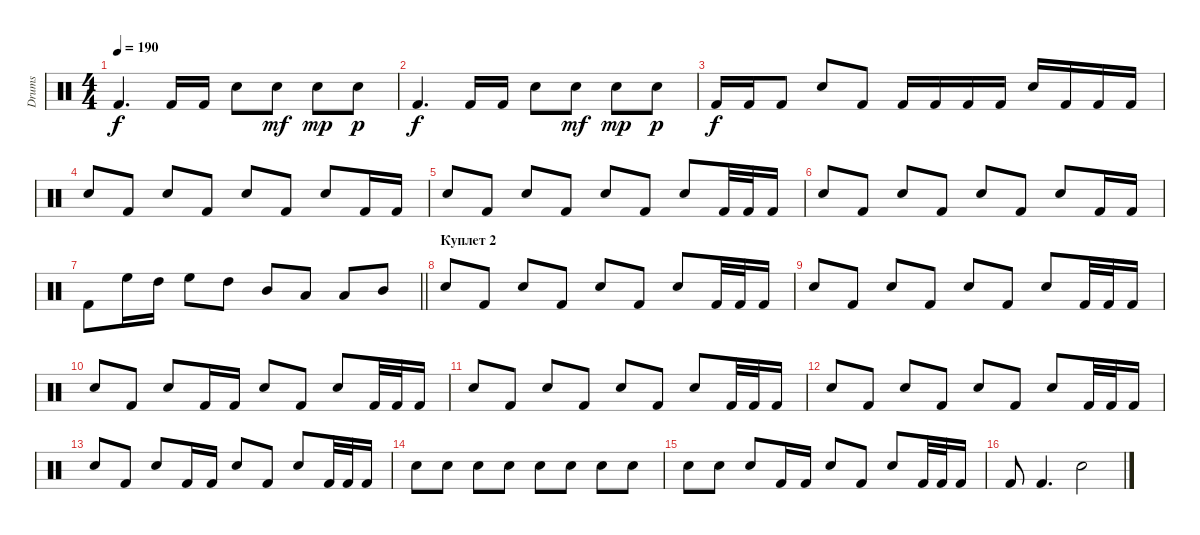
\track ("Drums" "Drums") {instrument percussion}
\staff {score}
\articulation defaults
\ts (4 4)
\tempo 190
\clef neutral
\ks c "Kick (hit) 2".4{d dy f} "Kick (hit) 2".16 "Kick (hit) 2".16 "Snare (hit) 2".8 "Snare (hit) 2".8{dy mf} "Snare (hit) 2".8{dy mp} "Snare (hit) 2".8{dy p}
|
"Kick (hit) 2".4{d dy f} "Kick (hit) 2".16 "Kick (hit) 2".16 "Snare (hit) 2".8 "Snare (hit) 2".8{dy mf} "Snare (hit) 2".8{dy mp} "Snare (hit) 2".8{dy p} |
"Kick (hit) 2".16{dy f} "Kick (hit) 2".16 "Kick (hit) 2".8 "Snare (hit) 2".8 "Kick (hit) 2".8 "Kick (hit) 2".16 "Kick (hit) 2".16 "Kick (hit) 2".16 "Kick (hit) 2".16 "Snare (hit) 2".16 "Kick (hit) 2".16 "Kick (hit) 2".16 "Kick (hit) 2".16 |
"Snare (hit) 2".8 "Kick (hit) 2".8 "Snare (hit) 2".8 "Kick (hit) 2".8 "Snare (hit) 2".8 "Kick (hit) 2".8 "Snare (hit) 2".8 "Kick (hit) 2".16 "Kick (hit) 2".16 |
"Snare (hit) 2".8 "Kick (hit) 2".8 "Snare (hit) 2".8 "Kick (hit) 2".8 "Snare (hit) 2".8 "Kick (hit) 2".8 "Snare (hit) 2".8 "Kick (hit) 2".32 "Kick (hit) 2".32 "Kick (hit) 2".16 |
"Snare (hit) 2".8 "Kick (hit) 2".8 "Snare (hit) 2".8 "Kick (hit) 2".8 "Snare (hit) 2".8 "Kick (hit) 2".8 "Snare (hit) 2".8 "Kick (hit) 2".16 "Kick (hit) 2".16 |
\barLineRight lightlight "Kick (hit) 2".8 "High Floor Tom (hit)".16 "High Tom (hit)".16 "High Floor Tom (hit)".8 "High Tom (hit)".8 "Mid Tom (hit)".8 "Low Tom (hit)".8 "Low Tom (hit)".8 "Mid Tom (hit)".8
|
\section ("" "Куплет 2")
"Snare (hit) 2".8 "Kick (hit) 2".8 "Snare (hit) 2".8 "Kick (hit) 2".8 "Snare (hit) 2".8 "Kick (hit) 2".8 "Snare (hit) 2".8 "Kick (hit) 2".32 "Kick (hit) 2".32 "Kick (hit) 2".16 |
"Snare (hit) 2".8 "Kick (hit) 2".8 "Snare (hit) 2".8 "Kick (hit) 2".8 "Snare (hit) 2".8 "Kick (hit) 2".8 "Snare (hit) 2".8 "Kick (hit) 2".32 "Kick (hit) 2".32 "Kick (hit) 2".16 |
"Snare (hit) 2".8 "Kick (hit) 2".8 "Snare (hit) 2".8 "Kick (hit) 2".16 "Kick (hit) 2".16 "Snare (hit) 2".8 "Kick (hit) 2".8 "Snare (hit) 2".8 "Kick (hit) 2".32 "Kick (hit) 2".32 "Kick (hit) 2".16 |
"Snare (hit) 2".8 "Kick (hit) 2".8 "Snare (hit) 2".8 "Kick (hit) 2".8 "Snare (hit) 2".8 "Kick (hit) 2".8 "Snare (hit) 2".8 "Kick (hit) 2".32 "Kick (hit) 2".32 "Kick (hit) 2".16 |
"Snare (hit) 2".8 "Kick (hit) 2".8 "Snare (hit) 2".8 "Kick (hit) 2".8 "Snare (hit) 2".8 "Kick (hit) 2".8 "Snare (hit) 2".8 "Kick (hit) 2".32 "Kick (hit) 2".32 "Kick (hit) 2".16 |
"Snare (hit) 2".8 "Kick (hit) 2".8 "Snare (hit) 2".8 "Kick (hit) 2".16 "Kick (hit) 2".16 "Snare (hit) 2".8 "Kick (hit) 2".8 "Snare (hit) 2".8 "Kick (hit) 2".32 "Kick (hit) 2".32 "Kick (hit) 2".16 |
"Snare (hit) 2".8 "Snare (hit) 2".8 "Snare (hit) 2".8 "Snare (hit) 2".8 "Snare (hit) 2".8 "Snare (hit) 2".8 "Snare (hit) 2".8 "Snare (hit) 2".8 |
"Snare (hit) 2".8 "Snare (hit) 2".8 "Snare (hit) 2".8 "Kick (hit) 2".16 "Kick (hit) 2".16 "Snare (hit) 2".8 "Kick (hit) 2".8 "Snare (hit) 2".8 "Kick (hit) 2".32 "Kick (hit) 2".32 "Kick (hit) 2".16 |
"Kick (hit) 2".8 "Kick (hit) 2".4{d} "Snare (hit) 2".2
